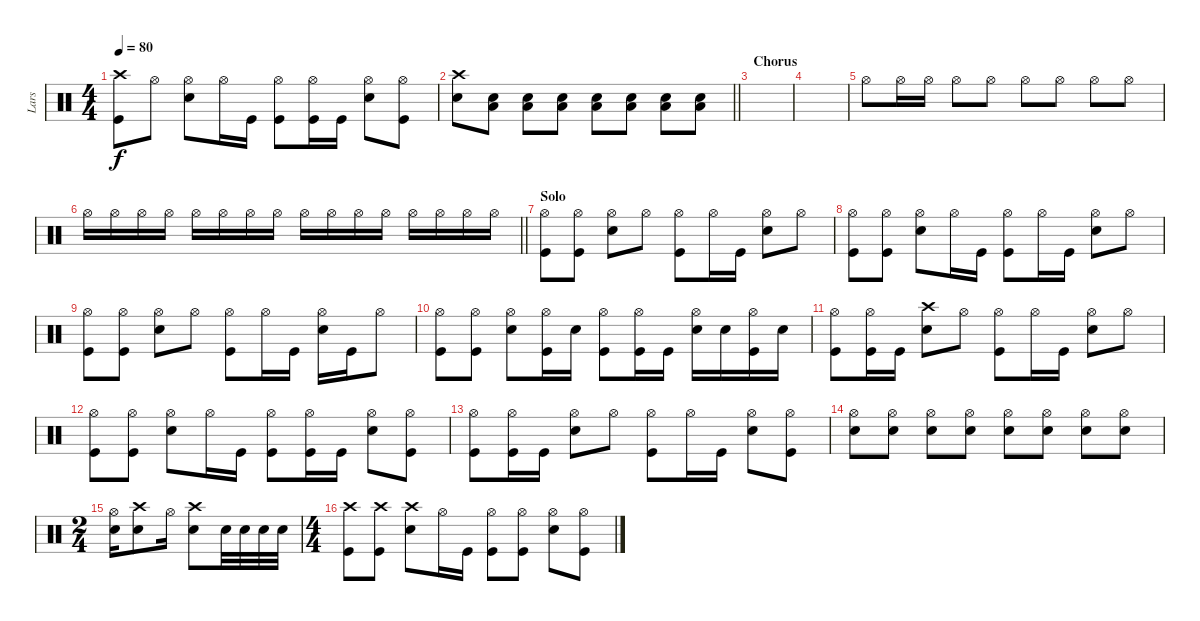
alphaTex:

\track ("Lars" "Lars") {instrument percussion}
\staff {score}
\articulation defaults
\ts (4 4)
\tempo 80
\clef neutral
\ks c
("Crash high (hit)" "Kick (hit)").8{dy f} "Hi-Hat (open)".8 ("Hi-Hat (open)" "Snare (hit) 2").8 "Hi-Hat (open)".16 "Kick (hit)".16 ("Hi-Hat (open)" "Kick (hit)").8 ("Hi-Hat (open)" "Kick (hit)").16 "Kick (hit)".16 ("Hi-Hat (open)" "Snare (hit) 2").8 ("Hi-Hat (open)" "Kick (hit)").8 |
\barLineRight lightlight
("Crash high (hit)" "Snare (hit) 2").8 ("Snare (hit) 2" "Low Floor Tom (hit)").8 ("Snare (hit) 2" "Low Floor Tom (hit)").8 ("Snare (hit) 2" "Low Floor Tom (hit)").8 ("Snare (hit) 2" "Low Floor Tom (hit)").8 ("Snare (hit) 2" "Low Floor Tom (hit)").8 ("Snare (hit) 2" "Low Floor Tom (hit)").8 ("Snare (hit) 2" "Low Floor Tom (hit)").8 |
\section ("" "Chorus")
|
|
"Hi-Hat (open)".8 "Hi-Hat (open)".16 "Hi-Hat (open)".16 "Hi-Hat (open)".8 "Hi-Hat (open)".8 "Hi-Hat (open)".8 "Hi-Hat (open)".8 "Hi-Hat (open)".8 "Hi-Hat (open)".8 |
\barLineRight lightlight "Hi-Hat (open)".16 "Hi-Hat (open)".16 "Hi-Hat (open)".16 "Hi-Hat (open)".16 "Hi-Hat (open)".16 "Hi-Hat (open)".16 "Hi-Hat (open)".16 "Hi-Hat (open)".16 "Hi-Hat (open)".16 "Hi-Hat (open)".16 "Hi-Hat (open)".16 "Hi-Hat (open)".16 "Hi-Hat (open)".16 "Hi-Hat (open)".16 "Hi-Hat (open)".16 "Hi-Hat (open)".16
|
\section ("" "Solo")
("Hi-Hat (open)" "Kick (hit)").8 ("Hi-Hat (open)" "Kick (hit)").8 ("Hi-Hat (open)" "Snare (hit) 2").8 "Hi-Hat (open)".8 ("Hi-Hat (open)" "Kick (hit)").8 "Hi-Hat (open)".16 "Kick (hit)".16 ("Hi-Hat (open)" "Snare (hit) 2").8 "Hi-Hat (open)".8 |
("Hi-Hat (open)" "Kick (hit)").8 ("Hi-Hat (open)" "Kick (hit)").8 ("Hi-Hat (open)" "Snare (hit) 2").8 "Hi-Hat (open)".16 "Kick (hit)".16 ("Hi-Hat (open)" "Kick (hit)").8 "Hi-Hat (open)".16 "Kick (hit)".16 ("Hi-Hat (open)" "Snare (hit) 2").8 "Hi-Hat (open)".8 |
("Hi-Hat (open)" "Kick (hit)").8 ("Hi-Hat (open)" "Kick (hit)").8 ("Hi-Hat (open)" "Snare (hit) 2").8 "Hi-Hat (open)".8 ("Hi-Hat (open)" "Kick (hit)").8 "Hi-Hat (open)".16 "Kick (hit)".16 ("Hi-Hat (open)" "Snare (hit) 2").16 "Kick (hit)".16 "Hi-Hat (open)".8 |
("Hi-Hat (open)" "Kick (hit)").8 ("Hi-Hat (open)" "Kick (hit)").8 ("Hi-Hat (open)" "Snare (hit) 2").8 ("Hi-Hat (open)" "Kick (hit)").16 "Snare (hit) 2".16 ("Hi-Hat (open)" "Kick (hit)").8 ("Hi-Hat (open)" "Kick (hit)").16 "Kick (hit)".16 ("Hi-Hat (open)" "Snare (hit) 2").16 "Snare (hit) 2".16 ("Hi-Hat (open)" "Kick (hit)").16 "Snare (hit) 2".16 |
("Hi-Hat (open)" "Kick (hit)").8 ("Hi-Hat (open)" "Kick (hit)").16 "Kick (hit)".16 ("Crash high (hit)" "Snare (hit) 2").8 "Hi-Hat (open)".8 ("Hi-Hat (open)" "Kick (hit)").8 "Hi-Hat (open)".16 "Kick (hit)".16 ("Hi-Hat (open)" "Snare (hit) 2").8 "Hi-Hat (open)".8 |
("Hi-Hat (open)" "Kick (hit)").8 ("Hi-Hat (open)" "Kick (hit)").8 ("Hi-Hat (open)" "Snare (hit) 2").8 "Hi-Hat (open)".16 "Kick (hit)".16 ("Hi-Hat (open)" "Kick (hit)").8 ("Hi-Hat (open)" "Kick (hit)").16 "Kick (hit)".16 ("Hi-Hat (open)" "Snare (hit) 2").8 ("Hi-Hat (open)" "Kick (hit)").8 |
("Hi-Hat (open)" "Kick (hit)").8 ("Hi-Hat (open)" "Kick (hit)").16 "Kick (hit)".16 ("Hi-Hat (open)" "Snare (hit) 2").8 "Hi-Hat (open)".8 ("Hi-Hat (open)" "Kick (hit)").8 "Hi-Hat (open)".16 "Kick (hit)".16 ("Hi-Hat (open)" "Snare (hit) 2").8 ("Hi-Hat (open)" "Kick (hit)").8 |
("Hi-Hat (open)" "Snare (hit) 2").8 ("Hi-Hat (open)" "Snare (hit) 2").8 ("Hi-Hat (open)" "Snare (hit) 2").8 ("Hi-Hat (open)" "Snare (hit) 2").8 ("Hi-Hat (open)" "Snare (hit) 2").8 ("Hi-Hat (open)" "Snare (hit) 2").8 ("Hi-Hat (open)" "Snare (hit) 2").8 ("Hi-Hat (open)" "Snare (hit) 2").8 |
\ts (2 4)
("Hi-Hat (open)" "Snare (hit) 2").16 ("Crash high (hit)" "Snare (hit) 2").8 "Hi-Hat (open)".16 ("Crash high (hit)" "Snare (hit) 2").8 "Snare (hit) 2".32 "Snare (hit) 2".32 "Snare (hit) 2".32 "Snare (hit) 2".32 |
\ts (4 4)
("Crash high (hit)" "Kick (hit)").8 ("Crash high (hit)" "Kick (hit)").8 ("Crash high (hit)" "Snare (hit) 2").8 "Hi-Hat (open)".16 "Kick (hit)".16 ("Hi-Hat (open)" "Kick (hit)").8 ("Hi-Hat (open)" "Kick (hit)").8 ("Hi-Hat (open)" "Snare (hit) 2").8 ("Hi-Hat (open)" "Kick (hit)").8
